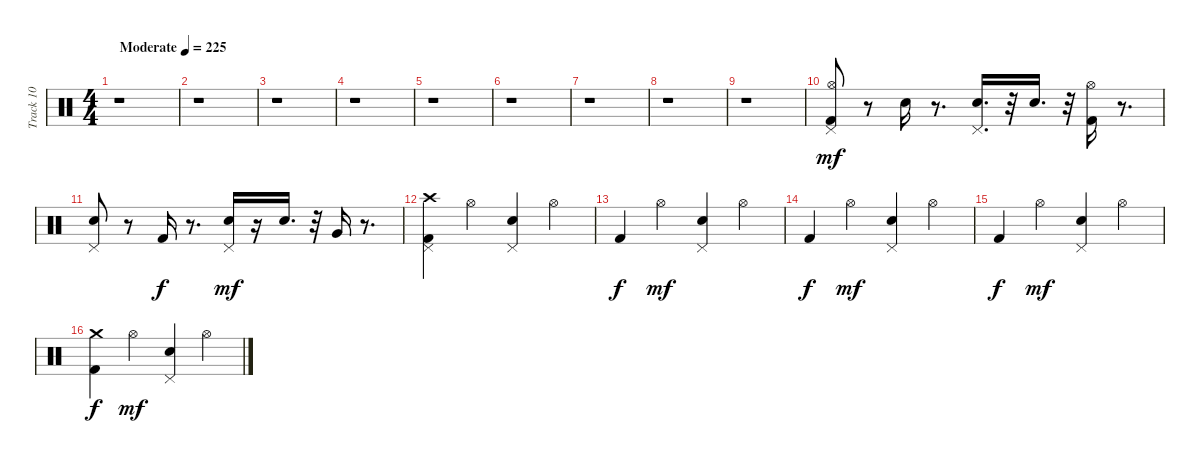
\track ("Track 10" "Track 10") {instrument percussion}
\staff {score}
\articulation defaults
\ts (4 4)
\tempo (225 "Moderate")
\clef neutral
\ks c
r.1{dy mf} |
r.1 |
r.1 |
r.1 |
r.1 |
r.1 |
r.1 |
r.1 |
r.1 |
("Kick (hit) 2" "Hi-Hat (open)" "Pedal Hi-Hat (hit)").8{volume 14} r.8 "Electric Snare (hit)".16 r.8{d} ("Electric Snare (hit)" "Pedal Hi-Hat (hit)").16{d} r.32 "Electric Snare (hit)".16{d} r.32 ("Kick (hit) 2" "Hi-Hat (open)").16 r.8{d} |
("Electric Snare (hit)" "Pedal Hi-Hat (hit)").8 r.8 "Kick (hit) 2".16{dy f} r.8{d} ("Electric Snare (hit)" "Pedal Hi-Hat (hit)").16{dy mf} r.16 "Electric Snare (hit)".16{d} r.32 "Very Low Tom (hit)".16 r.8{d} |
("Crash high (hit)" "Kick (hit) 2" "Pedal Hi-Hat (hit)").4 "Hi-Hat (open)".4 ("Electric Snare (hit)" "Pedal Hi-Hat (hit)").4 "Hi-Hat (open)".4 |
"Kick (hit) 2".4{dy f} "Hi-Hat (open)".4{dy mf} ("Electric Snare (hit)" "Pedal Hi-Hat (hit)").4 "Hi-Hat (open)".4 |
"Kick (hit) 2".4{dy f} "Hi-Hat (open)".4{dy mf} ("Electric Snare (hit)" "Pedal Hi-Hat (hit)").4 "Hi-Hat (open)".4 |
"Kick (hit) 2".4{dy f} "Hi-Hat (open)".4{dy mf} ("Electric Snare (hit)" "Pedal Hi-Hat (hit)").4 "Hi-Hat (open)".4 |
("Kick (hit) 2" "Crash medium (hit)").4{dy f} "Hi-Hat (open)".4{dy mf} ("Electric Snare (hit)" "Pedal Hi-Hat (hit)").4 "Hi-Hat (open)".4
